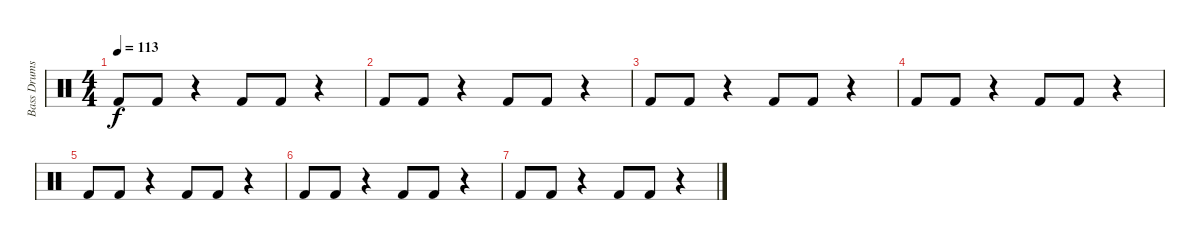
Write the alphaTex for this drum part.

\track ("Bass Drums" "Bass Drums") {instrument percussion}
\staff {score}
\articulation defaults
\ts (4 4)
\tempo 113
\clef neutral
\ks c "Kick (hit) 2".8{dy f} "Kick (hit) 2".8
r.4 "Kick (hit) 2".8 "Kick (hit) 2".8 r.4 |
"Kick (hit) 2".8 "Kick (hit) 2".8 r.4 "Kick (hit) 2".8 "Kick (hit) 2".8 r.4 |
"Kick (hit) 2".8 "Kick (hit) 2".8 r.4 "Kick (hit) 2".8 "Kick (hit) 2".8 r.4 |
"Kick (hit) 2".8{volume 6} "Kick (hit) 2".8 r.4 "Kick (hit) 2".8 "Kick (hit) 2".8 r.4 |
"Kick (hit) 2".8 "Kick (hit) 2".8 r.4 "Kick (hit) 2".8 "Kick (hit) 2".8 r.4 |
"Kick (hit) 2".8{volume 1} "Kick (hit) 2".8 r.4 "Kick (hit) 2".8 "Kick (hit) 2".8 r.4 |
"Kick (hit) 2".8 "Kick (hit) 2".8 r.4 "Kick (hit) 2".8 "Kick (hit) 2".8 r.4
